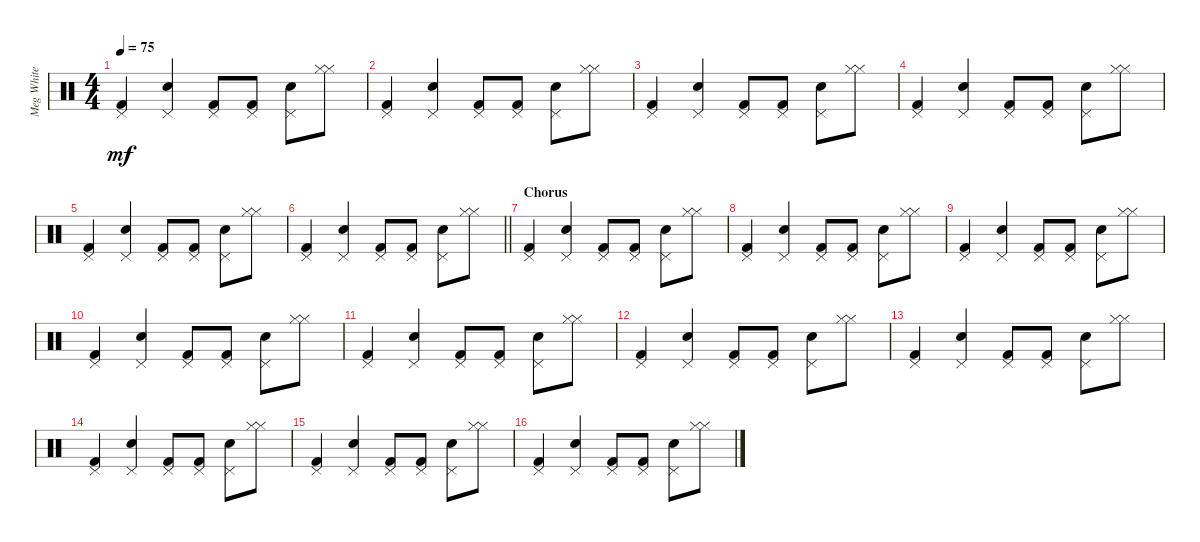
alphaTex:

\track ("Meg White" "Meg White") {instrument percussion}
\staff {score}
\articulation defaults
\ts (4 4)
\tempo 75
\clef neutral
\ks c
("Pedal Hi-Hat (hit)" "Kick (hit) 2").4{dy mf} ("Pedal Hi-Hat (hit)" "Electric Snare (hit)").4 ("Pedal Hi-Hat (hit)" "Kick (hit) 2").8 ("Pedal Hi-Hat (hit)" "Kick (hit) 2").8 ("Pedal Hi-Hat (hit)" "Electric Snare (hit)").8 ("Hi-Hat (closed)" "Hi-Hat (closed)").8 |
("Pedal Hi-Hat (hit)" "Kick (hit) 2").4 ("Pedal Hi-Hat (hit)" "Electric Snare (hit)").4 ("Pedal Hi-Hat (hit)" "Kick (hit) 2").8 ("Pedal Hi-Hat (hit)" "Kick (hit) 2").8 ("Pedal Hi-Hat (hit)" "Electric Snare (hit)").8 ("Hi-Hat (closed)" "Hi-Hat (closed)").8 |
("Pedal Hi-Hat (hit)" "Kick (hit) 2").4 ("Pedal Hi-Hat (hit)" "Electric Snare (hit)").4 ("Pedal Hi-Hat (hit)" "Kick (hit) 2").8 ("Pedal Hi-Hat (hit)" "Kick (hit) 2").8 ("Pedal Hi-Hat (hit)" "Electric Snare (hit)").8 ("Hi-Hat (closed)" "Hi-Hat (closed)").8 |
("Pedal Hi-Hat (hit)" "Kick (hit) 2").4 ("Pedal Hi-Hat (hit)" "Electric Snare (hit)").4 ("Pedal Hi-Hat (hit)" "Kick (hit) 2").8 ("Pedal Hi-Hat (hit)" "Kick (hit) 2").8 ("Pedal Hi-Hat (hit)" "Electric Snare (hit)").8 ("Hi-Hat (closed)" "Hi-Hat (closed)").8 |
("Pedal Hi-Hat (hit)" "Kick (hit) 2").4 ("Pedal Hi-Hat (hit)" "Electric Snare (hit)").4 ("Pedal Hi-Hat (hit)" "Kick (hit) 2").8 ("Pedal Hi-Hat (hit)" "Kick (hit) 2").8 ("Pedal Hi-Hat (hit)" "Electric Snare (hit)").8 ("Hi-Hat (closed)" "Hi-Hat (closed)").8 |
\barLineRight lightlight
("Pedal Hi-Hat (hit)" "Kick (hit) 2").4 ("Pedal Hi-Hat (hit)" "Electric Snare (hit)").4 ("Pedal Hi-Hat (hit)" "Kick (hit) 2").8 ("Pedal Hi-Hat (hit)" "Kick (hit) 2").8 ("Pedal Hi-Hat (hit)" "Electric Snare (hit)").8 ("Hi-Hat (closed)" "Hi-Hat (closed)").8 |
\section ("" "Chorus")
("Pedal Hi-Hat (hit)" "Kick (hit) 2").4 ("Pedal Hi-Hat (hit)" "Electric Snare (hit)").4 ("Pedal Hi-Hat (hit)" "Kick (hit) 2").8 ("Pedal Hi-Hat (hit)" "Kick (hit) 2").8 ("Pedal Hi-Hat (hit)" "Electric Snare (hit)").8 ("Hi-Hat (closed)" "Hi-Hat (closed)").8 |
("Pedal Hi-Hat (hit)" "Kick (hit) 2").4 ("Pedal Hi-Hat (hit)" "Electric Snare (hit)").4 ("Pedal Hi-Hat (hit)" "Kick (hit) 2").8 ("Pedal Hi-Hat (hit)" "Kick (hit) 2").8 ("Pedal Hi-Hat (hit)" "Electric Snare (hit)").8 ("Hi-Hat (closed)" "Hi-Hat (closed)").8 |
("Pedal Hi-Hat (hit)" "Kick (hit) 2").4 ("Pedal Hi-Hat (hit)" "Electric Snare (hit)").4 ("Pedal Hi-Hat (hit)" "Kick (hit) 2").8 ("Pedal Hi-Hat (hit)" "Kick (hit) 2").8 ("Pedal Hi-Hat (hit)" "Electric Snare (hit)").8 ("Hi-Hat (closed)" "Hi-Hat (closed)").8 |
("Pedal Hi-Hat (hit)" "Kick (hit) 2").4 ("Pedal Hi-Hat (hit)" "Electric Snare (hit)").4 ("Pedal Hi-Hat (hit)" "Kick (hit) 2").8 ("Pedal Hi-Hat (hit)" "Kick (hit) 2").8 ("Pedal Hi-Hat (hit)" "Electric Snare (hit)").8 ("Hi-Hat (closed)" "Hi-Hat (closed)").8 |
("Pedal Hi-Hat (hit)" "Kick (hit) 2").4 ("Pedal Hi-Hat (hit)" "Electric Snare (hit)").4 ("Pedal Hi-Hat (hit)" "Kick (hit) 2").8 ("Pedal Hi-Hat (hit)" "Kick (hit) 2").8 ("Pedal Hi-Hat (hit)" "Electric Snare (hit)").8 ("Hi-Hat (closed)" "Hi-Hat (closed)").8 |
("Pedal Hi-Hat (hit)" "Kick (hit) 2").4 ("Pedal Hi-Hat (hit)" "Electric Snare (hit)").4 ("Pedal Hi-Hat (hit)" "Kick (hit) 2").8 ("Pedal Hi-Hat (hit)" "Kick (hit) 2").8 ("Pedal Hi-Hat (hit)" "Electric Snare (hit)").8 ("Hi-Hat (closed)" "Hi-Hat (closed)").8 |
("Pedal Hi-Hat (hit)" "Kick (hit) 2").4 ("Pedal Hi-Hat (hit)" "Electric Snare (hit)").4 ("Pedal Hi-Hat (hit)" "Kick (hit) 2").8 ("Pedal Hi-Hat (hit)" "Kick (hit) 2").8 ("Pedal Hi-Hat (hit)" "Electric Snare (hit)").8 ("Hi-Hat (closed)" "Hi-Hat (closed)").8 |
("Pedal Hi-Hat (hit)" "Kick (hit) 2").4 ("Pedal Hi-Hat (hit)" "Electric Snare (hit)").4 ("Pedal Hi-Hat (hit)" "Kick (hit) 2").8 ("Pedal Hi-Hat (hit)" "Kick (hit) 2").8 ("Pedal Hi-Hat (hit)" "Electric Snare (hit)").8 ("Hi-Hat (closed)" "Hi-Hat (closed)").8 |
("Pedal Hi-Hat (hit)" "Kick (hit) 2").4 ("Pedal Hi-Hat (hit)" "Electric Snare (hit)").4 ("Pedal Hi-Hat (hit)" "Kick (hit) 2").8 ("Pedal Hi-Hat (hit)" "Kick (hit) 2").8 ("Pedal Hi-Hat (hit)" "Electric Snare (hit)").8 ("Hi-Hat (closed)" "Hi-Hat (closed)").8 |
("Pedal Hi-Hat (hit)" "Kick (hit) 2").4 ("Pedal Hi-Hat (hit)" "Electric Snare (hit)").4 ("Pedal Hi-Hat (hit)" "Kick (hit) 2").8 ("Pedal Hi-Hat (hit)" "Kick (hit) 2").8 ("Pedal Hi-Hat (hit)" "Electric Snare (hit)").8 ("Hi-Hat (closed)" "Hi-Hat (closed)").8
